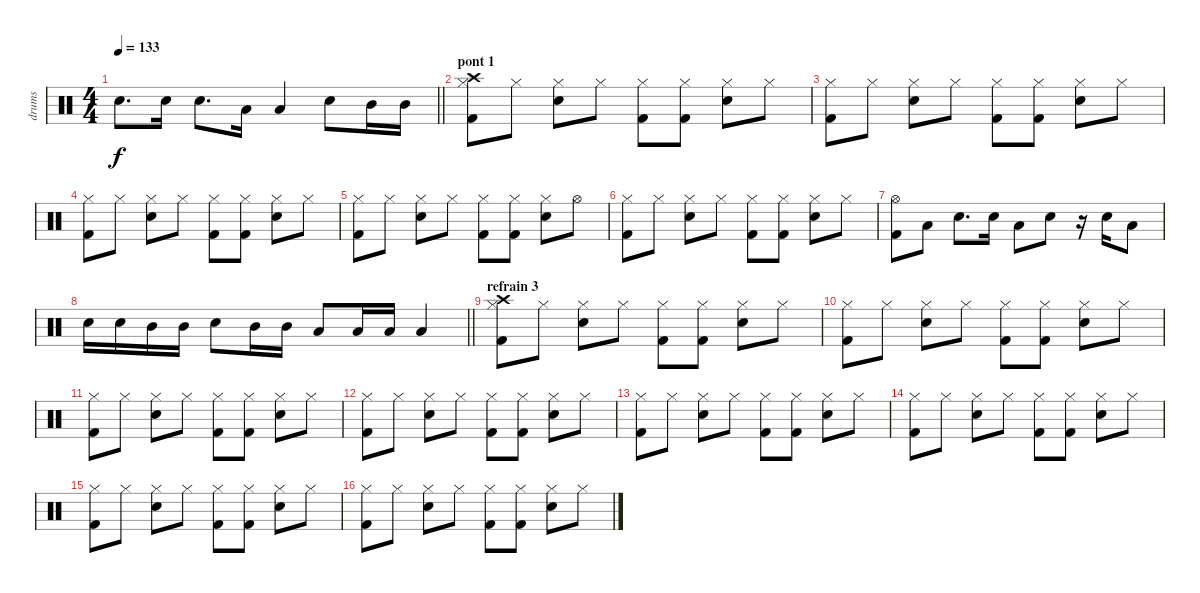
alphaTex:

\track ("drums" "drums") {instrument percussion}
\staff {score}
\articulation defaults
\ts (4 4)
\tempo 133
\clef neutral
\barLineRight lightlight
\ks c "Snare (hit) 2".8{d dy f} "Snare (hit) 2".16 "Snare (hit) 2".8{d} "Low Tom (hit)".16 "Low Tom (hit)".4 "Snare (hit) 2".8 "Mid Tom (hit)".16 "Mid Tom (hit)".16
|
\section ("" "pont 1")
("Crash high (hit)" "Hi-Hat (closed)" "Kick (hit) 2").8 "Hi-Hat (closed)".8 ("Hi-Hat (closed)" "Snare (hit) 2").8 "Hi-Hat (closed)".8 ("Hi-Hat (closed)" "Kick (hit) 2").8 ("Hi-Hat (closed)" "Kick (hit) 2").8 ("Hi-Hat (closed)" "Snare (hit) 2").8 "Hi-Hat (closed)".8 |
("Hi-Hat (closed)" "Kick (hit) 2").8 "Hi-Hat (closed)".8 ("Hi-Hat (closed)" "Snare (hit) 2").8 "Hi-Hat (closed)".8 ("Hi-Hat (closed)" "Kick (hit) 2").8 ("Hi-Hat (closed)" "Kick (hit) 2").8 ("Hi-Hat (closed)" "Snare (hit) 2").8 "Hi-Hat (closed)".8 |
("Hi-Hat (closed)" "Kick (hit) 2").8 "Hi-Hat (closed)".8 ("Hi-Hat (closed)" "Snare (hit) 2").8 "Hi-Hat (closed)".8 ("Hi-Hat (closed)" "Kick (hit) 2").8 ("Hi-Hat (closed)" "Kick (hit) 2").8 ("Hi-Hat (closed)" "Snare (hit) 2").8 "Hi-Hat (closed)".8 |
("Hi-Hat (closed)" "Kick (hit) 2").8 "Hi-Hat (closed)".8 ("Hi-Hat (closed)" "Snare (hit) 2").8 "Hi-Hat (closed)".8 ("Hi-Hat (closed)" "Kick (hit) 2").8 ("Hi-Hat (closed)" "Kick (hit) 2").8 ("Hi-Hat (closed)" "Snare (hit) 2").8 "Hi-Hat (open)".8 |
("Hi-Hat (closed)" "Kick (hit) 2").8 "Hi-Hat (closed)".8 ("Hi-Hat (closed)" "Snare (hit) 2").8 "Hi-Hat (closed)".8 ("Hi-Hat (closed)" "Kick (hit) 2").8 ("Hi-Hat (closed)" "Kick (hit) 2").8 ("Hi-Hat (closed)" "Snare (hit) 2").8 "Hi-Hat (closed)".8 |
("Hi-Hat (open)" "Kick (hit) 2").8 "Low Tom (hit)".8 "Snare (hit) 2".8{d} "Snare (hit) 2".16 "Low Tom (hit)".8 "Snare (hit) 2".8 r.16 "Snare (hit) 2".16 "Low Tom (hit)".8 |
\barLineRight lightlight "Snare (hit) 2".16 "Snare (hit) 2".16 "Mid Tom (hit)".16 "Mid Tom (hit)".16 "Snare (hit) 2".8 "Mid Tom (hit)".16 "Mid Tom (hit)".16 "Low Tom (hit)".8 "Low Tom (hit)".16 "Low Tom (hit)".16 "Low Tom (hit)".4
|
\section ("" "refrain 3")
("Crash high (hit)" "Hi-Hat (closed)" "Kick (hit) 2").8 "Hi-Hat (closed)".8 ("Hi-Hat (closed)" "Snare (hit) 2").8 "Hi-Hat (closed)".8 ("Hi-Hat (closed)" "Kick (hit) 2").8 ("Hi-Hat (closed)" "Kick (hit) 2").8 ("Hi-Hat (closed)" "Snare (hit) 2").8 "Hi-Hat (closed)".8 |
("Hi-Hat (closed)" "Kick (hit) 2").8 "Hi-Hat (closed)".8 ("Hi-Hat (closed)" "Snare (hit) 2").8 "Hi-Hat (closed)".8 ("Hi-Hat (closed)" "Kick (hit) 2").8 ("Hi-Hat (closed)" "Kick (hit) 2").8 ("Hi-Hat (closed)" "Snare (hit) 2").8 "Hi-Hat (closed)".8 |
("Hi-Hat (closed)" "Kick (hit) 2").8 "Hi-Hat (closed)".8 ("Hi-Hat (closed)" "Snare (hit) 2").8 "Hi-Hat (closed)".8 ("Hi-Hat (closed)" "Kick (hit) 2").8 ("Hi-Hat (closed)" "Kick (hit) 2").8 ("Hi-Hat (closed)" "Snare (hit) 2").8 "Hi-Hat (closed)".8 |
("Hi-Hat (closed)" "Kick (hit) 2").8 "Hi-Hat (closed)".8 ("Hi-Hat (closed)" "Snare (hit) 2").8 "Hi-Hat (closed)".8 ("Hi-Hat (closed)" "Kick (hit) 2").8 ("Hi-Hat (closed)" "Kick (hit) 2").8 ("Hi-Hat (closed)" "Snare (hit) 2").8 "Hi-Hat (closed)".8 |
("Hi-Hat (closed)" "Kick (hit) 2").8 "Hi-Hat (closed)".8 ("Hi-Hat (closed)" "Snare (hit) 2").8 "Hi-Hat (closed)".8 ("Hi-Hat (closed)" "Kick (hit) 2").8 ("Hi-Hat (closed)" "Kick (hit) 2").8 ("Hi-Hat (closed)" "Snare (hit) 2").8 "Hi-Hat (closed)".8 |
("Hi-Hat (closed)" "Kick (hit) 2").8 "Hi-Hat (closed)".8 ("Hi-Hat (closed)" "Snare (hit) 2").8 "Hi-Hat (closed)".8 ("Hi-Hat (closed)" "Kick (hit) 2").8 ("Hi-Hat (closed)" "Kick (hit) 2").8 ("Hi-Hat (closed)" "Snare (hit) 2").8 "Hi-Hat (closed)".8 |
("Hi-Hat (closed)" "Kick (hit) 2").8 "Hi-Hat (closed)".8 ("Hi-Hat (closed)" "Snare (hit) 2").8 "Hi-Hat (closed)".8 ("Hi-Hat (closed)" "Kick (hit) 2").8 ("Hi-Hat (closed)" "Kick (hit) 2").8 ("Hi-Hat (closed)" "Snare (hit) 2").8 "Hi-Hat (closed)".8 |
("Hi-Hat (closed)" "Kick (hit) 2").8 "Hi-Hat (closed)".8 ("Hi-Hat (closed)" "Snare (hit) 2").8 "Hi-Hat (closed)".8 ("Hi-Hat (closed)" "Kick (hit) 2").8 ("Hi-Hat (closed)" "Kick (hit) 2").8 ("Hi-Hat (closed)" "Snare (hit) 2").8 "Hi-Hat (closed)".8
